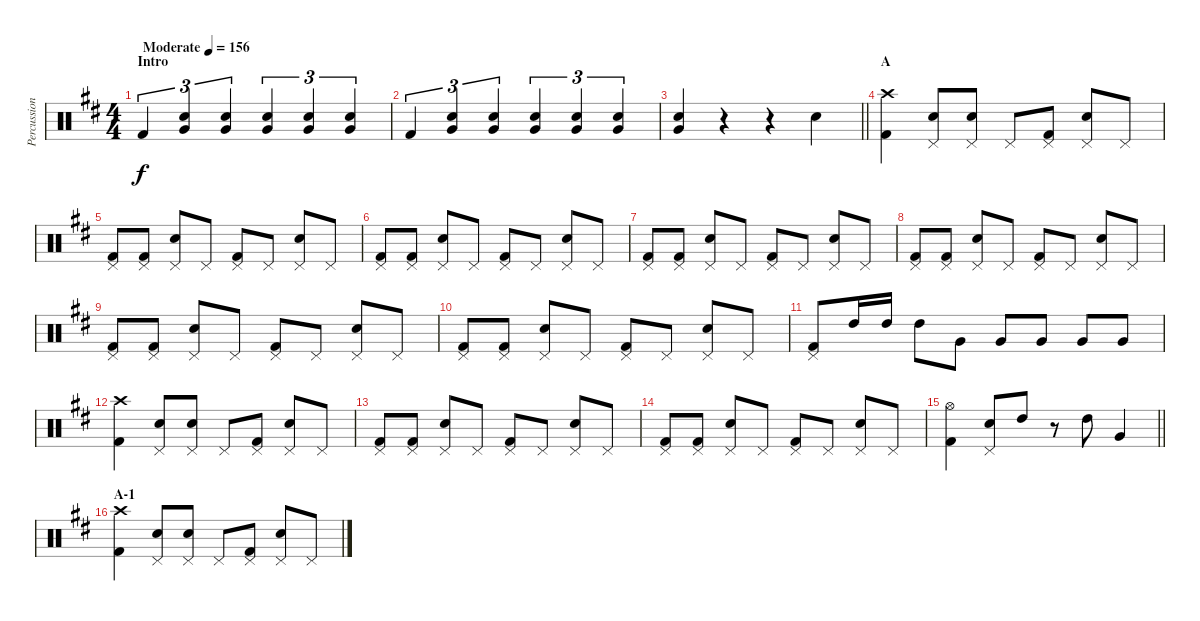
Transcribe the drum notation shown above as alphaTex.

\track ("Percussion" "Percussion") {instrument percussion}
\staff {score}
\articulation defaults
\ts (4 4)
\section ("" "Intro")
\tempo (156 "Moderate")
\clef neutral
\ks d "Kick (hit) 2".4{tu (3 2) dy f}
("Electric Snare (hit)" "Very Low Tom (hit)").4{tu (3 2)} ("Electric Snare (hit)" "Very Low Tom (hit)").4{tu (3 2)} ("Electric Snare (hit)" "Very Low Tom (hit)").4{tu (3 2)} ("Electric Snare (hit)" "Very Low Tom (hit)").4{tu (3 2)} ("Electric Snare (hit)" "Very Low Tom (hit)").4{tu (3 2)} |
"Kick (hit) 2".4{tu (3 2)} ("Electric Snare (hit)" "Very Low Tom (hit)").4{tu (3 2)} ("Electric Snare (hit)" "Very Low Tom (hit)").4{tu (3 2)} ("Electric Snare (hit)" "Very Low Tom (hit)").4{tu (3 2)} ("Electric Snare (hit)" "Very Low Tom (hit)").4{tu (3 2)} ("Electric Snare (hit)" "Very Low Tom (hit)").4{tu (3 2)} |
\barLineRight lightlight
("Electric Snare (hit)" "Very Low Tom (hit)").4 r.4 r.4 "Electric Snare (hit)".4 |
\section ("" "A")
("Crash high (hit)" "Kick (hit) 2").4 ("Pedal Hi-Hat (hit)" "Electric Snare (hit)").8 ("Pedal Hi-Hat (hit)" "Electric Snare (hit)").8 "Pedal Hi-Hat (hit)".8 ("Pedal Hi-Hat (hit)" "Kick (hit) 2").8 ("Pedal Hi-Hat (hit)" "Electric Snare (hit)").8 "Pedal Hi-Hat (hit)".8 |
("Pedal Hi-Hat (hit)" "Kick (hit) 2").8 ("Pedal Hi-Hat (hit)" "Kick (hit) 2").8 ("Pedal Hi-Hat (hit)" "Electric Snare (hit)").8 "Pedal Hi-Hat (hit)".8 ("Pedal Hi-Hat (hit)" "Kick (hit) 2").8 "Pedal Hi-Hat (hit)".8 ("Pedal Hi-Hat (hit)" "Electric Snare (hit)").8 "Pedal Hi-Hat (hit)".8 |
("Pedal Hi-Hat (hit)" "Kick (hit) 2").8 ("Pedal Hi-Hat (hit)" "Kick (hit) 2").8 ("Pedal Hi-Hat (hit)" "Electric Snare (hit)").8 "Pedal Hi-Hat (hit)".8 ("Pedal Hi-Hat (hit)" "Kick (hit) 2").8 "Pedal Hi-Hat (hit)".8 ("Pedal Hi-Hat (hit)" "Electric Snare (hit)").8 "Pedal Hi-Hat (hit)".8 |
("Pedal Hi-Hat (hit)" "Kick (hit) 2").8 ("Pedal Hi-Hat (hit)" "Kick (hit) 2").8 ("Pedal Hi-Hat (hit)" "Electric Snare (hit)").8 "Pedal Hi-Hat (hit)".8 ("Pedal Hi-Hat (hit)" "Kick (hit) 2").8 "Pedal Hi-Hat (hit)".8 ("Pedal Hi-Hat (hit)" "Electric Snare (hit)").8 "Pedal Hi-Hat (hit)".8 |
("Pedal Hi-Hat (hit)" "Kick (hit) 2").8 ("Pedal Hi-Hat (hit)" "Kick (hit) 2").8 ("Pedal Hi-Hat (hit)" "Electric Snare (hit)").8 "Pedal Hi-Hat (hit)".8 ("Pedal Hi-Hat (hit)" "Kick (hit) 2").8 "Pedal Hi-Hat (hit)".8 ("Pedal Hi-Hat (hit)" "Electric Snare (hit)").8 "Pedal Hi-Hat (hit)".8 |
("Pedal Hi-Hat (hit)" "Kick (hit) 2").8 ("Pedal Hi-Hat (hit)" "Kick (hit) 2").8 ("Pedal Hi-Hat (hit)" "Electric Snare (hit)").8 "Pedal Hi-Hat (hit)".8 ("Pedal Hi-Hat (hit)" "Kick (hit) 2").8 "Pedal Hi-Hat (hit)".8 ("Pedal Hi-Hat (hit)" "Electric Snare (hit)").8 "Pedal Hi-Hat (hit)".8 |
("Pedal Hi-Hat (hit)" "Kick (hit) 2").8 ("Pedal Hi-Hat (hit)" "Kick (hit) 2").8 ("Pedal Hi-Hat (hit)" "Electric Snare (hit)").8 "Pedal Hi-Hat (hit)".8 ("Pedal Hi-Hat (hit)" "Kick (hit) 2").8 "Pedal Hi-Hat (hit)".8 ("Pedal Hi-Hat (hit)" "Electric Snare (hit)").8 "Pedal Hi-Hat (hit)".8 |
("Pedal Hi-Hat (hit)" "Kick (hit) 2").8 "High Tom (hit)".16 "High Tom (hit)".16 "High Tom (hit)".8 "Very Low Tom (hit)".8 "Very Low Tom (hit)".8 "Very Low Tom (hit)".8 "Very Low Tom (hit)".8 "Very Low Tom (hit)".8 |
("Crash high (hit)" "Kick (hit) 2").4 ("Pedal Hi-Hat (hit)" "Electric Snare (hit)").8 ("Pedal Hi-Hat (hit)" "Electric Snare (hit)").8 "Pedal Hi-Hat (hit)".8 ("Pedal Hi-Hat (hit)" "Kick (hit) 2").8 ("Pedal Hi-Hat (hit)" "Electric Snare (hit)").8 "Pedal Hi-Hat (hit)".8 |
("Pedal Hi-Hat (hit)" "Kick (hit) 2").8 ("Pedal Hi-Hat (hit)" "Kick (hit) 2").8 ("Pedal Hi-Hat (hit)" "Electric Snare (hit)").8 "Pedal Hi-Hat (hit)".8 ("Pedal Hi-Hat (hit)" "Kick (hit) 2").8 "Pedal Hi-Hat (hit)".8 ("Pedal Hi-Hat (hit)" "Electric Snare (hit)").8 "Pedal Hi-Hat (hit)".8 |
("Pedal Hi-Hat (hit)" "Kick (hit) 2").8 ("Pedal Hi-Hat (hit)" "Kick (hit) 2").8 ("Pedal Hi-Hat (hit)" "Electric Snare (hit)").8 "Pedal Hi-Hat (hit)".8 ("Pedal Hi-Hat (hit)" "Kick (hit) 2").8 "Pedal Hi-Hat (hit)".8 ("Pedal Hi-Hat (hit)" "Electric Snare (hit)").8 "Pedal Hi-Hat (hit)".8 |
\barLineRight lightlight
("Hi-Hat (open)" "Kick (hit) 2").4 ("Pedal Hi-Hat (hit)" "Electric Snare (hit)").8 "High Tom (hit)".8 r.8 "High Tom (hit)".8 "Very Low Tom (hit)".4 |
\section ("" "A-1")
("Crash high (hit)" "Kick (hit) 2").4 ("Pedal Hi-Hat (hit)" "Electric Snare (hit)").8 ("Pedal Hi-Hat (hit)" "Electric Snare (hit)").8 "Pedal Hi-Hat (hit)".8 ("Pedal Hi-Hat (hit)" "Kick (hit) 2").8 ("Pedal Hi-Hat (hit)" "Electric Snare (hit)").8 "Pedal Hi-Hat (hit)".8
